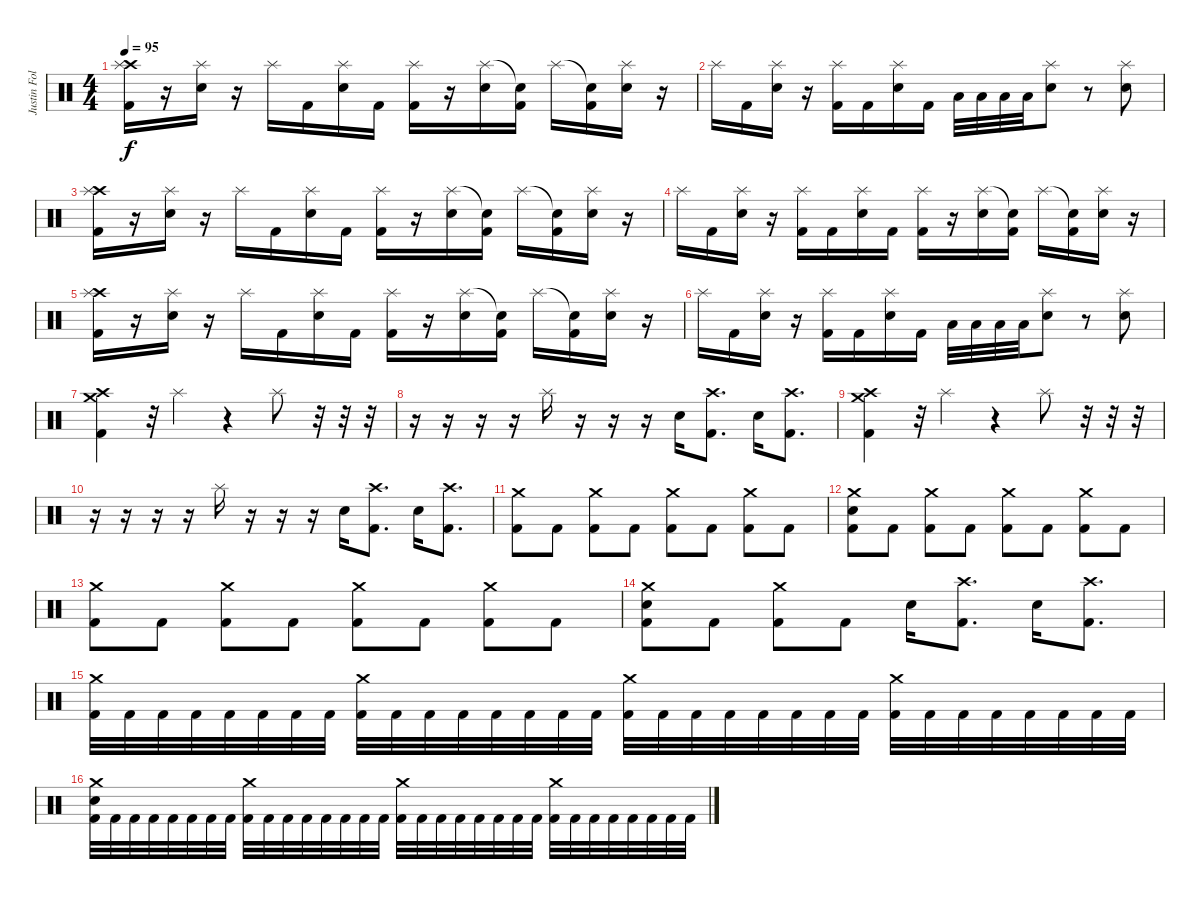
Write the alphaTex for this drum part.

\track ("Justin Foley" "Justin Fol") {instrument percussion}
\staff {score}
\articulation defaults
\ts (4 4)
\tempo 95
\clef neutral
\ks c
("Crash high (hit)" "Splash (hit)" "Kick (hit) 2").16{dy f} r.16 ("Splash (hit)" "Snare (hit) 2").16 r.16 "Splash (hit)".16 "Kick (hit) 2".16 ("Splash (hit)" "Snare (hit) 2").16 "Kick (hit) 2".16 ("Splash (hit)" "Kick (hit) 2").16 r.16 ("Splash (hit)" "Snare (hit) 2").16 ("Snare (hit)"{t} "Kick (hit) 2").16 "Splash (hit)".16 ("Snare (hit)"{t} "Kick (hit) 2").16 ("Splash (hit)" "Snare (hit) 2").16 r.16 |
"Splash (hit)".16 "Kick (hit) 2".16 ("Splash (hit)" "Snare (hit) 2").16 r.16 ("Splash (hit)" "Kick (hit) 2").16 "Kick (hit) 2".16 ("Splash (hit)" "Snare (hit) 2").16 "Kick (hit) 2".16 "Low Floor Tom (hit)".32 "Low Floor Tom (hit)".32 "Low Floor Tom (hit)".32 "Low Floor Tom (hit)".32 ("Splash (hit)" "Snare (hit) 2").8 r.8 ("Splash (hit)" "Snare (hit) 2").8 |
("Crash high (hit)" "Splash (hit)" "Kick (hit) 2").16 r.16 ("Splash (hit)" "Snare (hit) 2").16 r.16 "Splash (hit)".16 "Kick (hit) 2".16 ("Splash (hit)" "Snare (hit) 2").16 "Kick (hit) 2".16 ("Splash (hit)" "Kick (hit) 2").16 r.16 ("Splash (hit)" "Snare (hit) 2").16 ("Snare (hit)"{t} "Kick (hit) 2").16 "Splash (hit)".16 ("Snare (hit)"{t} "Kick (hit) 2").16 ("Splash (hit)" "Snare (hit) 2").16 r.16 |
"Splash (hit)".16 "Kick (hit) 2".16 ("Splash (hit)" "Snare (hit) 2").16 r.16 ("Splash (hit)" "Kick (hit) 2").16 "Kick (hit) 2".16 ("Splash (hit)" "Snare (hit) 2").16 "Kick (hit) 2".16 ("Splash (hit)" "Kick (hit) 2").16 r.16 ("Splash (hit)" "Snare (hit) 2").16 ("Snare (hit)"{t} "Kick (hit) 2").16 "Splash (hit)".16 ("Snare (hit)"{t} "Kick (hit) 2").16 ("Splash (hit)" "Snare (hit) 2").16 r.16 |
("Crash high (hit)" "Splash (hit)" "Kick (hit) 2").16 r.16 ("Splash (hit)" "Snare (hit) 2").16 r.16 "Splash (hit)".16 "Kick (hit) 2".16 ("Splash (hit)" "Snare (hit) 2").16 "Kick (hit) 2".16 ("Splash (hit)" "Kick (hit) 2").16 r.16 ("Splash (hit)" "Snare (hit) 2").16 ("Snare (hit)"{t} "Kick (hit) 2").16 "Splash (hit)".16 ("Snare (hit)"{t} "Kick (hit) 2").16 ("Splash (hit)" "Snare (hit) 2").16 r.16 |
"Splash (hit)".16 "Kick (hit) 2".16 ("Splash (hit)" "Snare (hit) 2").16 r.16 ("Splash (hit)" "Kick (hit) 2").16 "Kick (hit) 2".16 ("Splash (hit)" "Snare (hit) 2").16 "Kick (hit) 2".16 "Low Floor Tom (hit)".32 "Low Floor Tom (hit)".32 "Low Floor Tom (hit)".32 "Low Floor Tom (hit)".32 ("Splash (hit)" "Snare (hit) 2").8 r.8 ("Splash (hit)" "Snare (hit) 2").8 |
("Crash high (hit)" "Crash medium (hit)" "Kick (hit) 2").4 r.32 "Splash (hit)".4 r.4 "Splash (hit)".8 r.32 r.32 r.32 |
r.16 r.16 r.16 r.16 "Splash (hit)".16 r.16 r.16 r.16 "Snare (hit) 2".16 ("Crash high (hit)" "Kick (hit) 2").8{d} "Snare (hit) 2".16 ("Crash high (hit)" "Kick (hit) 2").8{d} |
("Crash high (hit)" "Crash medium (hit)" "Kick (hit) 2").4 r.32 "Splash (hit)".4 r.4 "Splash (hit)".8 r.32 r.32 r.32 |
r.16 r.16 r.16 r.16 "Splash (hit)".16 r.16 r.16 r.16 "Snare (hit) 2".16 ("Crash high (hit)" "Kick (hit) 2").8{d} "Snare (hit) 2".16 ("Crash high (hit)" "Kick (hit) 2").8{d} |
("Crash medium (hit)" "Kick (hit) 2").8 "Kick (hit) 2".8 ("Crash medium (hit)" "Kick (hit) 2").8 "Kick (hit) 2".8 ("Crash medium (hit)" "Kick (hit) 2").8 "Kick (hit) 2".8 ("Crash medium (hit)" "Kick (hit) 2").8 "Kick (hit) 2".8 |
("Crash medium (hit)" "Snare (hit) 2" "Kick (hit) 2").8 "Kick (hit) 2".8 ("Crash medium (hit)" "Kick (hit) 2").8 "Kick (hit) 2".8 ("Crash medium (hit)" "Kick (hit) 2").8 "Kick (hit) 2".8 ("Crash medium (hit)" "Kick (hit) 2").8 "Kick (hit) 2".8 |
("Crash medium (hit)" "Kick (hit) 2").8 "Kick (hit) 2".8 ("Crash medium (hit)" "Kick (hit) 2").8 "Kick (hit) 2".8 ("Crash medium (hit)" "Kick (hit) 2").8 "Kick (hit) 2".8 ("Crash medium (hit)" "Kick (hit) 2").8 "Kick (hit) 2".8 |
("Crash medium (hit)" "Snare (hit) 2" "Kick (hit) 2").8 "Kick (hit) 2".8 ("Crash medium (hit)" "Kick (hit) 2").8 "Kick (hit) 2".8 "Snare (hit) 2".16 ("Crash high (hit)" "Kick (hit) 2").8{d} "Snare (hit) 2".16 ("Crash high (hit)" "Kick (hit) 2").8{d} |
("Crash medium (hit)" "Kick (hit) 2").32 "Kick (hit) 2".32 "Kick (hit) 2".32 "Kick (hit) 2".32 "Kick (hit) 2".32 "Kick (hit) 2".32 "Kick (hit) 2".32 "Kick (hit) 2".32 ("Crash medium (hit)" "Kick (hit) 2").32 "Kick (hit) 2".32 "Kick (hit) 2".32 "Kick (hit) 2".32 "Kick (hit) 2".32 "Kick (hit) 2".32 "Kick (hit) 2".32 "Kick (hit) 2".32 ("Crash medium (hit)" "Kick (hit) 2").32 "Kick (hit) 2".32 "Kick (hit) 2".32 "Kick (hit) 2".32 "Kick (hit) 2".32 "Kick (hit) 2".32 "Kick (hit) 2".32 "Kick (hit) 2".32 ("Crash medium (hit)" "Kick (hit) 2").32 "Kick (hit) 2".32 "Kick (hit) 2".32 "Kick (hit) 2".32 "Kick (hit) 2".32 "Kick (hit) 2".32 "Kick (hit) 2".32 "Kick (hit) 2".32 |
("Crash medium (hit)" "Snare (hit) 2" "Kick (hit) 2").32 "Kick (hit) 2".32 "Kick (hit) 2".32 "Kick (hit) 2".32 "Kick (hit) 2".32 "Kick (hit) 2".32 "Kick (hit) 2".32 "Kick (hit) 2".32 ("Crash medium (hit)" "Kick (hit) 2").32 "Kick (hit) 2".32 "Kick (hit) 2".32 "Kick (hit) 2".32 "Kick (hit) 2".32 "Kick (hit) 2".32 "Kick (hit) 2".32 "Kick (hit) 2".32 ("Crash medium (hit)" "Kick (hit) 2").32 "Kick (hit) 2".32 "Kick (hit) 2".32 "Kick (hit) 2".32 "Kick (hit) 2".32 "Kick (hit) 2".32 "Kick (hit) 2".32 "Kick (hit) 2".32 ("Crash medium (hit)" "Kick (hit) 2").32 "Kick (hit) 2".32 "Kick (hit) 2".32 "Kick (hit) 2".32 "Kick (hit) 2".32 "Kick (hit) 2".32 "Kick (hit) 2".32 "Kick (hit) 2".32
